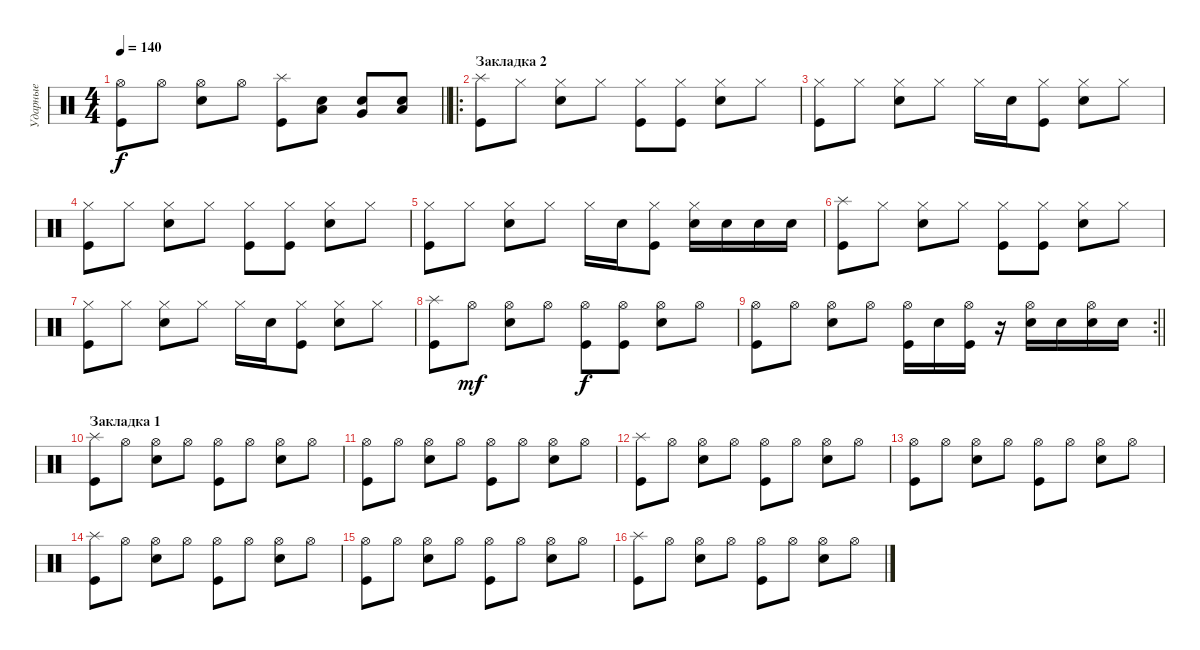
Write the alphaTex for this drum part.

\track ("Ударные" "Ударные") {instrument percussion}
\staff {score}
\articulation defaults
\ts (4 4)
\tempo 140
\clef neutral
\barLineRight lightlight
\ks c
("Hi-Hat (open)" "Kick (hit)").8{dy f} "Hi-Hat (open)".8 ("Hi-Hat (open)" "Snare (hit) 2").8 "Hi-Hat (open)".8 ("Splash (hit)" "Kick (hit)").8 ("Snare (hit) 2" "Low Floor Tom (hit)").8 ("Snare (hit) 2" "Very Low Tom (hit)").8 ("Snare (hit) 2" "Low Floor Tom (hit)").8 |
\ro
\section ("" "Закладка 2")
("Splash (hit)" "Kick (hit)").8 "Hi-Hat (closed)".8 ("Hi-Hat (closed)" "Snare (hit) 2").8 "Hi-Hat (closed)".8 ("Hi-Hat (closed)" "Kick (hit)").8 ("Hi-Hat (closed)" "Kick (hit)").8 ("Hi-Hat (closed)" "Snare (hit) 2").8 "Hi-Hat (closed)".8 |
("Hi-Hat (closed)" "Kick (hit)").8 "Hi-Hat (closed)".8 ("Hi-Hat (closed)" "Snare (hit) 2").8 "Hi-Hat (closed)".8 "Hi-Hat (closed)".16 "Snare (hit) 2".16 ("Hi-Hat (closed)" "Kick (hit)").8 ("Hi-Hat (closed)" "Snare (hit) 2").8 "Hi-Hat (closed)".8 |
("Hi-Hat (closed)" "Kick (hit)").8 "Hi-Hat (closed)".8 ("Hi-Hat (closed)" "Snare (hit) 2").8 "Hi-Hat (closed)".8 ("Hi-Hat (closed)" "Kick (hit)").8 ("Hi-Hat (closed)" "Kick (hit)").8 ("Hi-Hat (closed)" "Snare (hit) 2").8 "Hi-Hat (closed)".8 |
("Hi-Hat (closed)" "Kick (hit)").8 "Hi-Hat (closed)".8 ("Hi-Hat (closed)" "Snare (hit) 2").8 "Hi-Hat (closed)".8 "Hi-Hat (closed)".16 "Snare (hit) 2".16 ("Hi-Hat (closed)" "Kick (hit)").8 ("Hi-Hat (closed)" "Snare (hit) 2").16 "Snare (hit) 2".16 "Snare (hit) 2".16 "Snare (hit) 2".16 |
("Splash (hit)" "Kick (hit)").8 "Hi-Hat (closed)".8 ("Hi-Hat (closed)" "Snare (hit) 2").8 "Hi-Hat (closed)".8 ("Hi-Hat (closed)" "Kick (hit)").8 ("Hi-Hat (closed)" "Kick (hit)").8 ("Hi-Hat (closed)" "Snare (hit) 2").8 "Hi-Hat (closed)".8 |
("Hi-Hat (closed)" "Kick (hit)").8 "Hi-Hat (closed)".8 ("Hi-Hat (closed)" "Snare (hit) 2").8 "Hi-Hat (closed)".8 "Hi-Hat (closed)".16 "Snare (hit) 2".16 ("Hi-Hat (closed)" "Kick (hit)").8 ("Hi-Hat (closed)" "Snare (hit) 2").8 "Hi-Hat (closed)".8 |
("Splash (hit)" "Kick (hit)").8 "Hi-Hat (open)".8{dy mf} ("Hi-Hat (open)" "Snare (hit) 2").8 "Hi-Hat (open)".8 ("Hi-Hat (open)" "Kick (hit)").8{dy f} ("Hi-Hat (open)" "Kick (hit)").8 ("Hi-Hat (open)" "Snare (hit) 2").8 "Hi-Hat (open)".8 |
\rc 2
\barLineRight lightlight
("Hi-Hat (open)" "Kick (hit)").8 "Hi-Hat (open)".8 ("Hi-Hat (open)" "Snare (hit) 2").8 "Hi-Hat (open)".8 ("Hi-Hat (open)" "Kick (hit)").16 "Snare (hit) 2".16 ("Hi-Hat (open)" "Kick (hit)").16 r.16 ("Hi-Hat (open)" "Snare (hit) 2").16 "Snare (hit) 2".16 ("Hi-Hat (open)" "Snare (hit) 2").16 "Snare (hit) 2".16 |
\section ("" "Закладка 1")
("Splash (hit)" "Kick (hit)").8 "Hi-Hat (open)".8 ("Hi-Hat (open)" "Snare (hit) 2").8 "Hi-Hat (open)".8 ("Hi-Hat (open)" "Kick (hit)").8 "Hi-Hat (open)".8 ("Hi-Hat (open)" "Snare (hit) 2").8 "Hi-Hat (open)".8 |
("Hi-Hat (open)" "Kick (hit)").8 "Hi-Hat (open)".8 ("Hi-Hat (open)" "Snare (hit) 2").8 "Hi-Hat (open)".8 ("Hi-Hat (open)" "Kick (hit)").8 "Hi-Hat (open)".8 ("Hi-Hat (open)" "Snare (hit) 2").8 "Hi-Hat (open)".8 |
("Splash (hit)" "Kick (hit)").8 "Hi-Hat (open)".8 ("Hi-Hat (open)" "Snare (hit) 2").8 "Hi-Hat (open)".8 ("Hi-Hat (open)" "Kick (hit)").8 "Hi-Hat (open)".8 ("Hi-Hat (open)" "Snare (hit) 2").8 "Hi-Hat (open)".8 |
("Hi-Hat (open)" "Kick (hit)").8 "Hi-Hat (open)".8 ("Hi-Hat (open)" "Snare (hit) 2").8 "Hi-Hat (open)".8 ("Hi-Hat (open)" "Kick (hit)").8 "Hi-Hat (open)".8 ("Hi-Hat (open)" "Snare (hit) 2").8 "Hi-Hat (open)".8 |
("Splash (hit)" "Kick (hit)").8 "Hi-Hat (open)".8 ("Hi-Hat (open)" "Snare (hit) 2").8 "Hi-Hat (open)".8 ("Hi-Hat (open)" "Kick (hit)").8 "Hi-Hat (open)".8 ("Hi-Hat (open)" "Snare (hit) 2").8 "Hi-Hat (open)".8 |
("Hi-Hat (open)" "Kick (hit)").8 "Hi-Hat (open)".8 ("Hi-Hat (open)" "Snare (hit) 2").8 "Hi-Hat (open)".8 ("Hi-Hat (open)" "Kick (hit)").8 "Hi-Hat (open)".8 ("Hi-Hat (open)" "Snare (hit) 2").8 "Hi-Hat (open)".8 |
("Splash (hit)" "Kick (hit)").8 "Hi-Hat (open)".8 ("Hi-Hat (open)" "Snare (hit) 2").8 "Hi-Hat (open)".8 ("Hi-Hat (open)" "Kick (hit)").8 "Hi-Hat (open)".8 ("Hi-Hat (open)" "Snare (hit) 2").8 "Hi-Hat (open)".8
